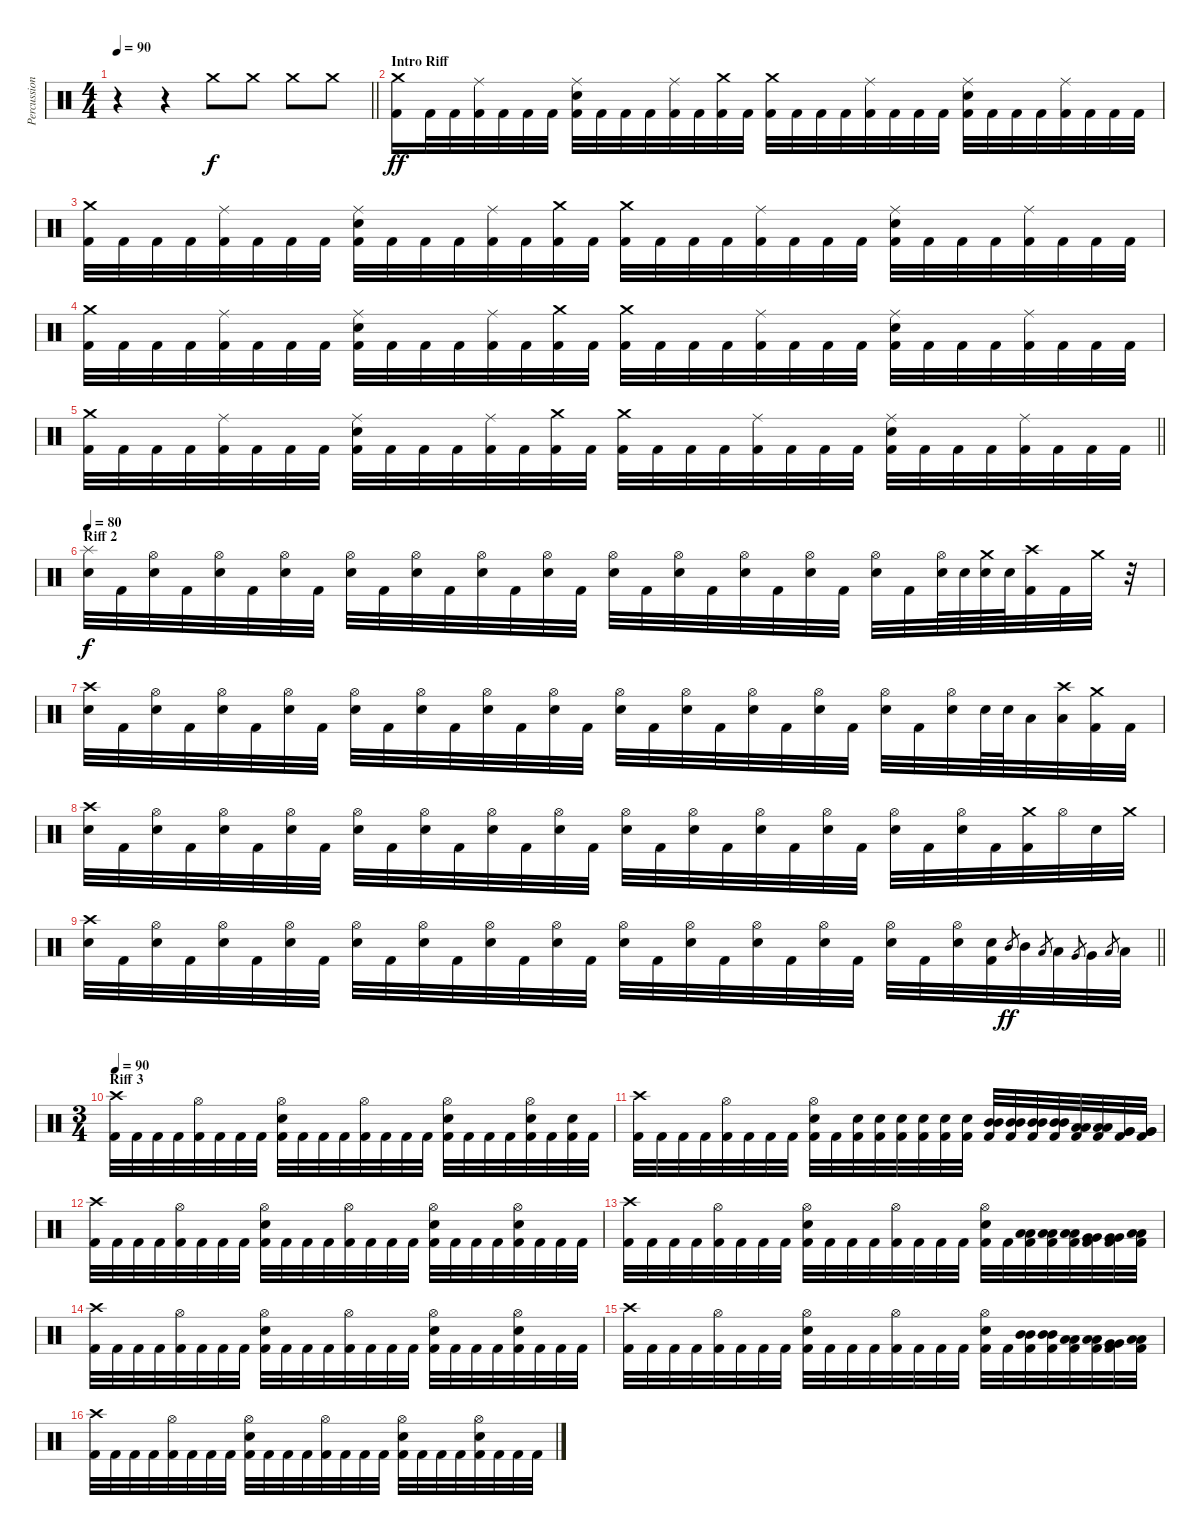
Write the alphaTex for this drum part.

\track ("Percussion" "Percussion") {instrument percussion}
\staff {score}
\articulation defaults
\ts (4 4)
\tempo 90
\clef neutral
\barLineRight lightlight
\ks c
r.4{dy f} r.4 "Crash medium (hit)".8 "Crash medium (hit)".8 "Crash medium (hit)".8 "Crash medium (hit)".8 |
\section ("" "Intro Riff")
("Crash medium (hit)" "Kick (hit) 2").16{dy ff} "Kick (hit) 2".32 "Kick (hit) 2".32 ("Ride (middle)" "Kick (hit) 2").32 "Kick (hit) 2".32 "Kick (hit) 2".32 "Kick (hit) 2".32 ("Ride (middle)" "Electric Snare (hit)" "Kick (hit) 2").32 "Kick (hit) 2".32 "Kick (hit) 2".32 "Kick (hit) 2".32 ("Ride (middle)" "Kick (hit) 2").32 "Kick (hit) 2".32 ("Crash medium (hit)" "Kick (hit) 2").32 "Kick (hit) 2".32 ("Crash medium (hit)" "Kick (hit) 2").32 "Kick (hit) 2".32 "Kick (hit) 2".32 "Kick (hit) 2".32 ("Ride (middle)" "Kick (hit) 2").32 "Kick (hit) 2".32 "Kick (hit) 2".32 "Kick (hit) 2".32 ("Ride (middle)" "Electric Snare (hit)" "Kick (hit) 2").32 "Kick (hit) 2".32 "Kick (hit) 2".32 "Kick (hit) 2".32 ("Ride (middle)" "Kick (hit) 2").32 "Kick (hit) 2".32 "Kick (hit) 2".32 "Kick (hit) 2".32 |
("Crash medium (hit)" "Kick (hit) 2").32 "Kick (hit) 2".32 "Kick (hit) 2".32 "Kick (hit) 2".32 ("Ride (middle)" "Kick (hit) 2").32 "Kick (hit) 2".32 "Kick (hit) 2".32 "Kick (hit) 2".32 ("Ride (middle)" "Electric Snare (hit)" "Kick (hit) 2").32 "Kick (hit) 2".32 "Kick (hit) 2".32 "Kick (hit) 2".32 ("Ride (middle)" "Kick (hit) 2").32 "Kick (hit) 2".32 ("Crash medium (hit)" "Kick (hit) 2").32 "Kick (hit) 2".32 ("Crash medium (hit)" "Kick (hit) 2").32 "Kick (hit) 2".32 "Kick (hit) 2".32 "Kick (hit) 2".32 ("Ride (middle)" "Kick (hit) 2").32 "Kick (hit) 2".32 "Kick (hit) 2".32 "Kick (hit) 2".32 ("Ride (middle)" "Electric Snare (hit)" "Kick (hit) 2").32 "Kick (hit) 2".32 "Kick (hit) 2".32 "Kick (hit) 2".32 ("Ride (middle)" "Kick (hit) 2").32 "Kick (hit) 2".32 "Kick (hit) 2".32 "Kick (hit) 2".32 |
("Crash medium (hit)" "Kick (hit) 2").32 "Kick (hit) 2".32 "Kick (hit) 2".32 "Kick (hit) 2".32 ("Ride (middle)" "Kick (hit) 2").32 "Kick (hit) 2".32 "Kick (hit) 2".32 "Kick (hit) 2".32 ("Ride (middle)" "Electric Snare (hit)" "Kick (hit) 2").32 "Kick (hit) 2".32 "Kick (hit) 2".32 "Kick (hit) 2".32 ("Ride (middle)" "Kick (hit) 2").32 "Kick (hit) 2".32 ("Crash medium (hit)" "Kick (hit) 2").32 "Kick (hit) 2".32 ("Crash medium (hit)" "Kick (hit) 2").32 "Kick (hit) 2".32 "Kick (hit) 2".32 "Kick (hit) 2".32 ("Ride (middle)" "Kick (hit) 2").32 "Kick (hit) 2".32 "Kick (hit) 2".32 "Kick (hit) 2".32 ("Ride (middle)" "Electric Snare (hit)" "Kick (hit) 2").32 "Kick (hit) 2".32 "Kick (hit) 2".32 "Kick (hit) 2".32 ("Ride (middle)" "Kick (hit) 2").32 "Kick (hit) 2".32 "Kick (hit) 2".32 "Kick (hit) 2".32 |
\barLineRight lightlight
("Crash medium (hit)" "Kick (hit) 2").32 "Kick (hit) 2".32 "Kick (hit) 2".32 "Kick (hit) 2".32 ("Ride (middle)" "Kick (hit) 2").32 "Kick (hit) 2".32 "Kick (hit) 2".32 "Kick (hit) 2".32 ("Ride (middle)" "Electric Snare (hit)" "Kick (hit) 2").32 "Kick (hit) 2".32 "Kick (hit) 2".32 "Kick (hit) 2".32 ("Ride (middle)" "Kick (hit) 2").32 "Kick (hit) 2".32 ("Crash medium (hit)" "Kick (hit) 2").32 "Kick (hit) 2".32 ("Crash medium (hit)" "Kick (hit) 2").32 "Kick (hit) 2".32 "Kick (hit) 2".32 "Kick (hit) 2".32 ("Ride (middle)" "Kick (hit) 2").32 "Kick (hit) 2".32 "Kick (hit) 2".32 "Kick (hit) 2".32 ("Ride (middle)" "Electric Snare (hit)" "Kick (hit) 2").32 "Kick (hit) 2".32 "Kick (hit) 2".32 "Kick (hit) 2".32 ("Ride (middle)" "Kick (hit) 2").32 "Kick (hit) 2".32 "Kick (hit) 2".32 "Kick (hit) 2".32 |
\section ("" "Riff 2")
\tempo 80
("Splash (hit)" "Electric Snare (hit)").32{dy f} "Kick (hit) 2".32 ("Hi-Hat (open)" "Electric Snare (hit)").32 "Kick (hit) 2".32 ("Hi-Hat (open)" "Electric Snare (hit)").32 "Kick (hit) 2".32 ("Hi-Hat (open)" "Electric Snare (hit)").32 "Kick (hit) 2".32 ("Hi-Hat (open)" "Electric Snare (hit)").32 "Kick (hit) 2".32 ("Hi-Hat (open)" "Electric Snare (hit)").32 "Kick (hit) 2".32 ("Hi-Hat (open)" "Electric Snare (hit)").32 "Kick (hit) 2".32 ("Hi-Hat (open)" "Electric Snare (hit)").32 "Kick (hit) 2".32 ("Hi-Hat (open)" "Electric Snare (hit)").32 "Kick (hit) 2".32 ("Hi-Hat (open)" "Electric Snare (hit)").32 "Kick (hit) 2".32 ("Hi-Hat (open)" "Electric Snare (hit)").32 "Kick (hit) 2".32 ("Hi-Hat (open)" "Electric Snare (hit)").32 "Kick (hit) 2".32 ("Hi-Hat (open)" "Electric Snare (hit)").32 "Kick (hit) 2".32 ("Hi-Hat (open)" "Electric Snare (hit)").64 "Electric Snare (hit)".64 ("Crash medium (hit)" "Electric Snare (hit)").64 "Electric Snare (hit)".64 ("Crash high (hit)" "Kick (hit) 2").32 "Kick (hit) 2".32 "Crash medium (hit)".32 r.32 |
("Crash high (hit)" "Electric Snare (hit)").32 "Kick (hit) 2".32 ("Hi-Hat (open)" "Electric Snare (hit)").32 "Kick (hit) 2".32 ("Hi-Hat (open)" "Electric Snare (hit)").32 "Kick (hit) 2".32 ("Hi-Hat (open)" "Electric Snare (hit)").32 "Kick (hit) 2".32 ("Hi-Hat (open)" "Electric Snare (hit)").32 "Kick (hit) 2".32 ("Hi-Hat (open)" "Electric Snare (hit)").32 "Kick (hit) 2".32 ("Hi-Hat (open)" "Electric Snare (hit)").32 "Kick (hit) 2".32 ("Hi-Hat (open)" "Electric Snare (hit)").32 "Kick (hit) 2".32 ("Hi-Hat (open)" "Electric Snare (hit)").32 "Kick (hit) 2".32 ("Hi-Hat (open)" "Electric Snare (hit)").32 "Kick (hit) 2".32 ("Hi-Hat (open)" "Electric Snare (hit)").32 "Kick (hit) 2".32 ("Hi-Hat (open)" "Electric Snare (hit)").32 "Kick (hit) 2".32 ("Hi-Hat (open)" "Electric Snare (hit)").32 "Kick (hit) 2".32 ("Hi-Hat (open)" "Electric Snare (hit)").32 "Electric Snare (hit)".64 "Electric Snare (hit)".64 "Low Floor Tom (hit)".32 ("Crash high (hit)" "Low Floor Tom (hit)").32 ("Crash medium (hit)" "Kick (hit) 2").32 "Kick (hit) 2".32 |
("Crash high (hit)" "Electric Snare (hit)").32 "Kick (hit) 2".32 ("Hi-Hat (open)" "Electric Snare (hit)").32 "Kick (hit) 2".32 ("Hi-Hat (open)" "Electric Snare (hit)").32 "Kick (hit) 2".32 ("Hi-Hat (open)" "Electric Snare (hit)").32 "Kick (hit) 2".32 ("Hi-Hat (open)" "Electric Snare (hit)").32 "Kick (hit) 2".32 ("Hi-Hat (open)" "Electric Snare (hit)").32 "Kick (hit) 2".32 ("Hi-Hat (open)" "Electric Snare (hit)").32 "Kick (hit) 2".32 ("Hi-Hat (open)" "Electric Snare (hit)").32 "Kick (hit) 2".32 ("Hi-Hat (open)" "Electric Snare (hit)").32 "Kick (hit) 2".32 ("Hi-Hat (open)" "Electric Snare (hit)").32 "Kick (hit) 2".32 ("Hi-Hat (open)" "Electric Snare (hit)").32 "Kick (hit) 2".32 ("Hi-Hat (open)" "Electric Snare (hit)").32 "Kick (hit) 2".32 ("Hi-Hat (open)" "Electric Snare (hit)").32 "Kick (hit) 2".32 ("Hi-Hat (open)" "Electric Snare (hit)").32 "Kick (hit) 2".32 ("Crash medium (hit)" "Kick (hit) 2").32 "Hi-Hat (open)".32 "Electric Snare (hit)".32 "Crash medium (hit)".32 |
\barLineRight lightlight
("Crash high (hit)" "Electric Snare (hit)").32 "Kick (hit) 2".32 ("Hi-Hat (open)" "Electric Snare (hit)").32 "Kick (hit) 2".32 ("Hi-Hat (open)" "Electric Snare (hit)").32 "Kick (hit) 2".32 ("Hi-Hat (open)" "Electric Snare (hit)").32 "Kick (hit) 2".32 ("Hi-Hat (open)" "Electric Snare (hit)").32 "Kick (hit) 2".32 ("Hi-Hat (open)" "Electric Snare (hit)").32 "Kick (hit) 2".32 ("Hi-Hat (open)" "Electric Snare (hit)").32 "Kick (hit) 2".32 ("Hi-Hat (open)" "Electric Snare (hit)").32 "Kick (hit) 2".32 ("Hi-Hat (open)" "Electric Snare (hit)").32 "Kick (hit) 2".32 ("Hi-Hat (open)" "Electric Snare (hit)").32 "Kick (hit) 2".32 ("Hi-Hat (open)" "Electric Snare (hit)").32 "Kick (hit) 2".32 ("Hi-Hat (open)" "Electric Snare (hit)").32 "Kick (hit) 2".32 ("Hi-Hat (open)" "Electric Snare (hit)").32 "Kick (hit) 2".32 ("Hi-Hat (open)" "Electric Snare (hit)").32 ("Electric Snare (hit)" "Kick (hit) 2").32 "Mid Tom (hit)".8{gr dy ff} "Mid Tom (hit)".32 "Low Tom (hit)".8{gr} "Low Tom (hit)".32 "Very Low Tom (hit)".8{gr} "Very Low Tom (hit)".32 "Low Floor Tom (hit)".8{gr} "Low Floor Tom (hit)".32 |
\ts (3 4)
\section ("" "Riff 3")
\tempo 90
("Crash high (hit)" "Kick (hit) 2").32 "Kick (hit) 2".32 "Kick (hit) 2".32 "Kick (hit) 2".32 ("Hi-Hat (open)" "Kick (hit) 2").32 "Kick (hit) 2".32 "Kick (hit) 2".32 "Kick (hit) 2".32 ("Hi-Hat (open)" "Electric Snare (hit)" "Kick (hit) 2").32 "Kick (hit) 2".32 "Kick (hit) 2".32 "Kick (hit) 2".32 ("Hi-Hat (open)" "Kick (hit) 2").32 "Kick (hit) 2".32 "Kick (hit) 2".32 "Kick (hit) 2".32 ("Hi-Hat (open)" "Electric Snare (hit)" "Kick (hit) 2").32 "Kick (hit) 2".32 "Kick (hit) 2".32 "Kick (hit) 2".32 ("Hi-Hat (open)" "Electric Snare (hit)" "Kick (hit) 2").32 "Kick (hit) 2".32 ("Electric Snare (hit)" "Kick (hit) 2").32 "Kick (hit) 2".32 |
("Crash high (hit)" "Kick (hit) 2").32 "Kick (hit) 2".32 "Kick (hit) 2".32 "Kick (hit) 2".32 ("Hi-Hat (open)" "Kick (hit) 2").32 "Kick (hit) 2".32 "Kick (hit) 2".32 "Kick (hit) 2".32 ("Hi-Hat (open)" "Electric Snare (hit)" "Kick (hit) 2").32 "Kick (hit) 2".32 ("Electric Snare (hit)" "Kick (hit) 2").32 ("Electric Snare (hit)" "Kick (hit) 2").32 ("Electric Snare (hit)" "Kick (hit) 2").32 ("Electric Snare (hit)" "Kick (hit) 2").32 ("Electric Snare (hit)" "Kick (hit) 2").32 ("Electric Snare (hit)" "Kick (hit) 2").32 ("Mid Tom (hit)" "Mid Tom (hit)" "Kick (hit) 2").32 ("Mid Tom (hit)" "Mid Tom (hit)" "Kick (hit) 2").32 ("Mid Tom (hit)" "Mid Tom (hit)" "Kick (hit) 2").32 ("Mid Tom (hit)" "Mid Tom (hit)" "Kick (hit) 2").32 ("Low Tom (hit)" "Low Tom (hit)" "Kick (hit) 2").32 ("Low Tom (hit)" "Low Tom (hit)" "Kick (hit) 2").32 ("Very Low Tom (hit)" "Very Low Tom (hit)" "Kick (hit) 2").32 ("Very Low Tom (hit)" "Very Low Tom (hit)" "Kick (hit) 2").32 |
("Crash high (hit)" "Kick (hit) 2").32 "Kick (hit) 2".32 "Kick (hit) 2".32 "Kick (hit) 2".32 ("Hi-Hat (open)" "Kick (hit) 2").32 "Kick (hit) 2".32 "Kick (hit) 2".32 "Kick (hit) 2".32 ("Hi-Hat (open)" "Electric Snare (hit)" "Kick (hit) 2").32 "Kick (hit) 2".32 "Kick (hit) 2".32 "Kick (hit) 2".32 ("Hi-Hat (open)" "Kick (hit) 2").32 "Kick (hit) 2".32 "Kick (hit) 2".32 "Kick (hit) 2".32 ("Hi-Hat (open)" "Electric Snare (hit)" "Kick (hit) 2").32 "Kick (hit) 2".32 "Kick (hit) 2".32 "Kick (hit) 2".32 ("Hi-Hat (open)" "Electric Snare (hit)" "Kick (hit) 2").32 "Kick (hit) 2".32 "Kick (hit) 2".32 "Kick (hit) 2".32 |
("Crash high (hit)" "Kick (hit) 2").32 "Kick (hit) 2".32 "Kick (hit) 2".32 "Kick (hit) 2".32 ("Hi-Hat (open)" "Kick (hit) 2").32 "Kick (hit) 2".32 "Kick (hit) 2".32 "Kick (hit) 2".32 ("Hi-Hat (open)" "Electric Snare (hit)" "Kick (hit) 2").32 "Kick (hit) 2".32 "Kick (hit) 2".32 "Kick (hit) 2".32 ("Hi-Hat (open)" "Kick (hit) 2").32 "Kick (hit) 2".32 "Kick (hit) 2".32 "Kick (hit) 2".32 ("Hi-Hat (open)" "Electric Snare (hit)" "Kick (hit) 2").32 "Kick (hit) 2".32 ("Low Tom (hit)" "Low Tom (hit)" "Kick (hit) 2").32 ("Low Tom (hit)" "Low Tom (hit)" "Kick (hit) 2").32 ("Low Tom (hit)" "Low Tom (hit)" "Kick (hit) 2").32 ("Very Low Tom (hit)" "Very Low Tom (hit)" "Kick (hit) 2").32 ("Very Low Tom (hit)" "Very Low Tom (hit)" "Kick (hit) 2").32 ("Low Floor Tom (hit)" "Low Floor Tom (hit)" "Kick (hit) 2").32 |
("Crash high (hit)" "Kick (hit) 2").32 "Kick (hit) 2".32 "Kick (hit) 2".32 "Kick (hit) 2".32 ("Hi-Hat (open)" "Kick (hit) 2").32 "Kick (hit) 2".32 "Kick (hit) 2".32 "Kick (hit) 2".32 ("Hi-Hat (open)" "Electric Snare (hit)" "Kick (hit) 2").32 "Kick (hit) 2".32 "Kick (hit) 2".32 "Kick (hit) 2".32 ("Hi-Hat (open)" "Kick (hit) 2").32 "Kick (hit) 2".32 "Kick (hit) 2".32 "Kick (hit) 2".32 ("Hi-Hat (open)" "Electric Snare (hit)" "Kick (hit) 2").32 "Kick (hit) 2".32 "Kick (hit) 2".32 "Kick (hit) 2".32 ("Hi-Hat (open)" "Electric Snare (hit)" "Kick (hit) 2").32 "Kick (hit) 2".32 "Kick (hit) 2".32 "Kick (hit) 2".32 |
("Crash high (hit)" "Kick (hit) 2").32 "Kick (hit) 2".32 "Kick (hit) 2".32 "Kick (hit) 2".32 ("Hi-Hat (open)" "Kick (hit) 2").32 "Kick (hit) 2".32 "Kick (hit) 2".32 "Kick (hit) 2".32 ("Hi-Hat (open)" "Electric Snare (hit)" "Kick (hit) 2").32 "Kick (hit) 2".32 "Kick (hit) 2".32 "Kick (hit) 2".32 ("Hi-Hat (open)" "Kick (hit) 2").32 "Kick (hit) 2".32 "Kick (hit) 2".32 "Kick (hit) 2".32 ("Hi-Hat (open)" "Electric Snare (hit)" "Kick (hit) 2").32 "Kick (hit) 2".32 ("Mid Tom (hit)" "Mid Tom (hit)" "Kick (hit) 2").32 ("Mid Tom (hit)" "Mid Tom (hit)" "Kick (hit) 2").32 ("Low Tom (hit)" "Low Tom (hit)" "Kick (hit) 2").32 ("Low Tom (hit)" "Low Tom (hit)" "Kick (hit) 2").32 ("Very Low Tom (hit)" "Very Low Tom (hit)" "Kick (hit) 2").32 ("Low Floor Tom (hit)" "Low Floor Tom (hit)" "Kick (hit) 2").32 |
("Crash high (hit)" "Kick (hit) 2").32 "Kick (hit) 2".32 "Kick (hit) 2".32 "Kick (hit) 2".32 ("Hi-Hat (open)" "Kick (hit) 2").32 "Kick (hit) 2".32 "Kick (hit) 2".32 "Kick (hit) 2".32 ("Hi-Hat (open)" "Electric Snare (hit)" "Kick (hit) 2").32 "Kick (hit) 2".32 "Kick (hit) 2".32 "Kick (hit) 2".32 ("Hi-Hat (open)" "Kick (hit) 2").32 "Kick (hit) 2".32 "Kick (hit) 2".32 "Kick (hit) 2".32 ("Hi-Hat (open)" "Electric Snare (hit)" "Kick (hit) 2").32 "Kick (hit) 2".32 "Kick (hit) 2".32 "Kick (hit) 2".32 ("Hi-Hat (open)" "Electric Snare (hit)" "Kick (hit) 2").32 "Kick (hit) 2".32 "Kick (hit) 2".32 "Kick (hit) 2".32
